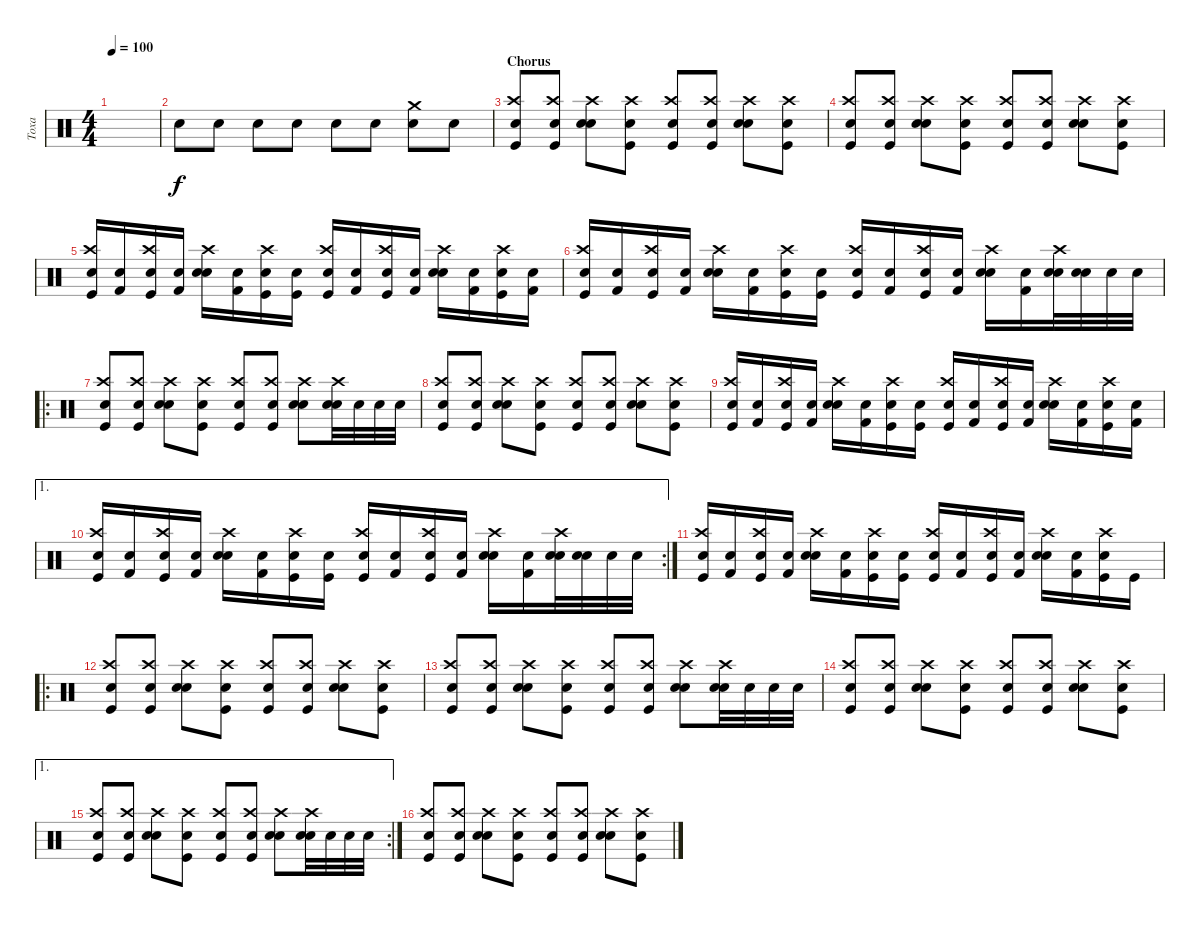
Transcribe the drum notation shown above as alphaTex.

\track ("Toxa" "Toxa") {instrument percussion}
\staff {score}
\articulation defaults
\ts (4 4)
\tempo 100
\clef neutral
\ks c
|
"Snare (hit)"{x}.8 "Snare (hit)"{x}.8 "Snare (hit)"{x}.8 "Snare (hit)"{x}.8 "Snare (hit)"{x}.8 "Snare (hit)"{x}.8 ("Crash medium (hit)" "Snare (hit)"{x}).8 "Snare (hit)"{x}.8 |
\section ("" "Chorus")
("Crash high (hit)" "Kick (hit)" "Snare (hit)"{x}).8 ("Crash high (hit)" "Kick (hit)" "Snare (hit)"{x}).8 ("Crash high (hit)" "Snare (hit) 2" "Snare (hit)"{x}).8 ("Crash high (hit)" "Kick (hit)" "Snare (hit)"{x}).8 ("Crash high (hit)" "Kick (hit)" "Snare (hit)"{x}).8 ("Crash high (hit)" "Kick (hit)" "Snare (hit)"{x}).8 ("Crash high (hit)" "Snare (hit) 2" "Snare (hit)"{x}).8 ("Crash high (hit)" "Kick (hit)" "Snare (hit)"{x}).8 |
("Crash high (hit)" "Kick (hit)" "Snare (hit)"{x}).8 ("Crash high (hit)" "Kick (hit)" "Snare (hit)"{x}).8 ("Crash high (hit)" "Snare (hit) 2" "Snare (hit)"{x}).8 ("Crash high (hit)" "Kick (hit)" "Snare (hit)"{x}).8 ("Crash high (hit)" "Kick (hit)" "Snare (hit)"{x}).8 ("Crash high (hit)" "Kick (hit)" "Snare (hit)"{x}).8 ("Crash high (hit)" "Snare (hit) 2" "Snare (hit)"{x}).8 ("Crash high (hit)" "Kick (hit)" "Snare (hit)"{x}).8 |
("Crash high (hit)" "Kick (hit)" "Snare (hit)"{x}).16 ("Kick (hit) 2" "Snare (hit)"{x}).16 ("Crash high (hit)" "Kick (hit)" "Snare (hit)"{x}).16 ("Kick (hit) 2" "Snare (hit)"{x}).16 ("Crash high (hit)" "Snare (hit) 2" "Snare (hit)"{x}).16 ("Kick (hit) 2" "Snare (hit)"{x}).16 ("Crash high (hit)" "Kick (hit)" "Snare (hit)"{x}).16 ("Kick (hit)" "Snare (hit)"{x}).16 ("Crash high (hit)" "Kick (hit)" "Snare (hit)"{x}).16 ("Kick (hit) 2" "Snare (hit)"{x}).16 ("Crash high (hit)" "Kick (hit)" "Snare (hit)"{x}).16 ("Kick (hit) 2" "Snare (hit)"{x}).16 ("Crash high (hit)" "Snare (hit) 2" "Snare (hit)"{x}).16 ("Kick (hit) 2" "Snare (hit)"{x}).16 ("Crash high (hit)" "Kick (hit)" "Snare (hit)"{x}).16 ("Kick (hit) 2" "Snare (hit)"{x}).16 |
("Crash high (hit)" "Kick (hit)" "Snare (hit)"{x}).16 ("Kick (hit) 2" "Snare (hit)"{x}).16 ("Crash high (hit)" "Kick (hit)" "Snare (hit)"{x}).16 ("Kick (hit) 2" "Snare (hit)"{x}).16 ("Crash high (hit)" "Snare (hit) 2" "Snare (hit)"{x}).16 ("Kick (hit) 2" "Snare (hit)"{x}).16 ("Crash high (hit)" "Kick (hit)" "Snare (hit)"{x}).16 ("Kick (hit)" "Snare (hit)"{x}).16 ("Crash high (hit)" "Kick (hit)" "Snare (hit)"{x}).16 ("Kick (hit) 2" "Snare (hit)"{x}).16 ("Crash high (hit)" "Kick (hit)" "Snare (hit)"{x}).16 ("Kick (hit) 2" "Snare (hit)"{x}).16 ("Crash high (hit)" "Snare (hit) 2" "Snare (hit)"{x}).16 ("Kick (hit) 2" "Snare (hit)"{x}).16 ("Crash high (hit)" "Electric Snare (hit)" "Snare (hit)"{x}).32 ("Electric Snare (hit)" "Snare (hit)"{x}).32 "Electric Snare (hit)".32 "Electric Snare (hit)".32 |
\ro
("Crash high (hit)" "Kick (hit)" "Snare (hit)"{x}).8 ("Crash high (hit)" "Kick (hit)" "Snare (hit)"{x}).8 ("Crash high (hit)" "Snare (hit) 2" "Snare (hit)"{x}).8 ("Crash high (hit)" "Kick (hit)" "Snare (hit)"{x}).8 ("Crash high (hit)" "Kick (hit)" "Snare (hit)"{x}).8 ("Crash high (hit)" "Kick (hit)" "Snare (hit)"{x}).8 ("Crash high (hit)" "Snare (hit) 2" "Snare (hit)"{x}).8 ("Crash high (hit)" "Electric Snare (hit)" "Snare (hit)"{x}).32 "Electric Snare (hit)".32 "Electric Snare (hit)".32 "Electric Snare (hit)".32 |
("Crash high (hit)" "Kick (hit)" "Snare (hit)"{x}).8 ("Crash high (hit)" "Kick (hit)" "Snare (hit)"{x}).8 ("Crash high (hit)" "Snare (hit) 2" "Snare (hit)"{x}).8 ("Crash high (hit)" "Kick (hit)" "Snare (hit)"{x}).8 ("Crash high (hit)" "Kick (hit)" "Snare (hit)"{x}).8 ("Crash high (hit)" "Kick (hit)" "Snare (hit)"{x}).8 ("Crash high (hit)" "Snare (hit) 2" "Snare (hit)"{x}).8 ("Crash high (hit)" "Kick (hit)" "Snare (hit)"{x}).8 |
("Crash high (hit)" "Kick (hit)" "Snare (hit)"{x}).16 ("Kick (hit) 2" "Snare (hit)"{x}).16 ("Crash high (hit)" "Kick (hit)" "Snare (hit)"{x}).16 ("Kick (hit) 2" "Snare (hit)"{x}).16 ("Crash high (hit)" "Snare (hit) 2" "Snare (hit)"{x}).16 ("Kick (hit) 2" "Snare (hit)"{x}).16 ("Crash high (hit)" "Kick (hit)" "Snare (hit)"{x}).16 ("Kick (hit)" "Snare (hit)"{x}).16 ("Crash high (hit)" "Kick (hit)" "Snare (hit)"{x}).16 ("Kick (hit) 2" "Snare (hit)"{x}).16 ("Crash high (hit)" "Kick (hit)" "Snare (hit)"{x}).16 ("Kick (hit) 2" "Snare (hit)"{x}).16 ("Crash high (hit)" "Snare (hit) 2" "Snare (hit)"{x}).16 ("Kick (hit) 2" "Snare (hit)"{x}).16 ("Crash high (hit)" "Kick (hit)" "Snare (hit)"{x}).16 ("Kick (hit) 2" "Snare (hit)"{x}).16 |
\ae 1
\rc 2
("Crash high (hit)" "Kick (hit)" "Snare (hit)"{x}).16 ("Kick (hit) 2" "Snare (hit)"{x}).16 ("Crash high (hit)" "Kick (hit)" "Snare (hit)"{x}).16 ("Kick (hit) 2" "Snare (hit)"{x}).16 ("Crash high (hit)" "Snare (hit) 2" "Snare (hit)"{x}).16 ("Kick (hit) 2" "Snare (hit)"{x}).16 ("Crash high (hit)" "Kick (hit)" "Snare (hit)"{x}).16 ("Kick (hit)" "Snare (hit)"{x}).16 ("Crash high (hit)" "Kick (hit)" "Snare (hit)"{x}).16 ("Kick (hit) 2" "Snare (hit)"{x}).16 ("Crash high (hit)" "Kick (hit)" "Snare (hit)"{x}).16 ("Kick (hit) 2" "Snare (hit)"{x}).16 ("Crash high (hit)" "Snare (hit) 2" "Snare (hit)"{x}).16 ("Kick (hit) 2" "Snare (hit)"{x}).16 ("Crash high (hit)" "Electric Snare (hit)" "Snare (hit)"{x}).32 ("Electric Snare (hit)" "Snare (hit)"{x}).32 "Electric Snare (hit)".32 "Electric Snare (hit)".32 |
("Crash high (hit)" "Kick (hit)" "Snare (hit)"{x}).16 ("Kick (hit) 2" "Snare (hit)"{x}).16 ("Crash high (hit)" "Kick (hit)" "Snare (hit)"{x}).16 ("Kick (hit) 2" "Snare (hit)"{x}).16 ("Crash high (hit)" "Snare (hit) 2" "Snare (hit)"{x}).16 ("Kick (hit) 2" "Snare (hit)"{x}).16 ("Crash high (hit)" "Kick (hit)" "Snare (hit)"{x}).16 ("Kick (hit)" "Snare (hit)"{x}).16 ("Crash high (hit)" "Kick (hit)" "Snare (hit)"{x}).16 ("Kick (hit) 2" "Snare (hit)"{x}).16 ("Crash high (hit)" "Kick (hit)" "Snare (hit)"{x}).16 ("Kick (hit) 2" "Snare (hit)"{x}).16 ("Crash high (hit)" "Snare (hit) 2" "Snare (hit)"{x}).16 ("Kick (hit) 2" "Snare (hit)"{x}).16 ("Crash high (hit)" "Kick (hit)" "Snare (hit)"{x}).16 "Kick (hit)".16 |
\ro
("Crash high (hit)" "Kick (hit)" "Snare (hit)"{x}).8 ("Crash high (hit)" "Kick (hit)" "Snare (hit)"{x}).8 ("Crash high (hit)" "Snare (hit) 2" "Snare (hit)"{x}).8 ("Crash high (hit)" "Kick (hit)" "Snare (hit)"{x}).8 ("Crash high (hit)" "Kick (hit)" "Snare (hit)"{x}).8 ("Crash high (hit)" "Kick (hit)" "Snare (hit)"{x}).8 ("Crash high (hit)" "Snare (hit) 2" "Snare (hit)"{x}).8 ("Crash high (hit)" "Kick (hit)" "Snare (hit)"{x}).8 |
("Crash high (hit)" "Kick (hit)" "Snare (hit)"{x}).8 ("Crash high (hit)" "Kick (hit)" "Snare (hit)"{x}).8 ("Crash high (hit)" "Snare (hit) 2" "Snare (hit)"{x}).8 ("Crash high (hit)" "Kick (hit)" "Snare (hit)"{x}).8 ("Crash high (hit)" "Kick (hit)" "Snare (hit)"{x}).8 ("Crash high (hit)" "Kick (hit)" "Snare (hit)"{x}).8 ("Crash high (hit)" "Snare (hit) 2" "Snare (hit)"{x}).8 ("Crash high (hit)" "Electric Snare (hit)" "Snare (hit)"{x}).32 "Electric Snare (hit)".32 "Electric Snare (hit)".32 "Electric Snare (hit)".32 |
("Crash high (hit)" "Kick (hit)" "Snare (hit)"{x}).8 ("Crash high (hit)" "Kick (hit)" "Snare (hit)"{x}).8 ("Crash high (hit)" "Snare (hit) 2" "Snare (hit)"{x}).8 ("Crash high (hit)" "Kick (hit)" "Snare (hit)"{x}).8 ("Crash high (hit)" "Kick (hit)" "Snare (hit)"{x}).8 ("Crash high (hit)" "Kick (hit)" "Snare (hit)"{x}).8 ("Crash high (hit)" "Snare (hit) 2" "Snare (hit)"{x}).8 ("Crash high (hit)" "Kick (hit)" "Snare (hit)"{x}).8 |
\ae 1
\rc 2
("Crash high (hit)" "Kick (hit)" "Snare (hit)"{x}).8 ("Crash high (hit)" "Kick (hit)" "Snare (hit)"{x}).8 ("Crash high (hit)" "Snare (hit) 2" "Snare (hit)"{x}).8 ("Crash high (hit)" "Kick (hit)" "Snare (hit)"{x}).8 ("Crash high (hit)" "Kick (hit)" "Snare (hit)"{x}).8 ("Crash high (hit)" "Kick (hit)" "Snare (hit)"{x}).8 ("Crash high (hit)" "Snare (hit) 2" "Snare (hit)"{x}).8 ("Crash high (hit)" "Electric Snare (hit)" "Snare (hit)"{x}).32 "Electric Snare (hit)".32 "Electric Snare (hit)".32 "Electric Snare (hit)".32 |
("Crash high (hit)" "Kick (hit)" "Snare (hit)"{x}).8 ("Crash high (hit)" "Kick (hit)" "Snare (hit)"{x}).8 ("Crash high (hit)" "Snare (hit) 2" "Snare (hit)"{x}).8 ("Crash high (hit)" "Kick (hit)" "Snare (hit)"{x}).8 ("Crash high (hit)" "Kick (hit)" "Snare (hit)"{x}).8 ("Crash high (hit)" "Kick (hit)" "Snare (hit)"{x}).8 ("Crash high (hit)" "Snare (hit) 2" "Snare (hit)"{x}).8 ("Crash high (hit)" "Kick (hit)" "Snare (hit)"{x}).8
